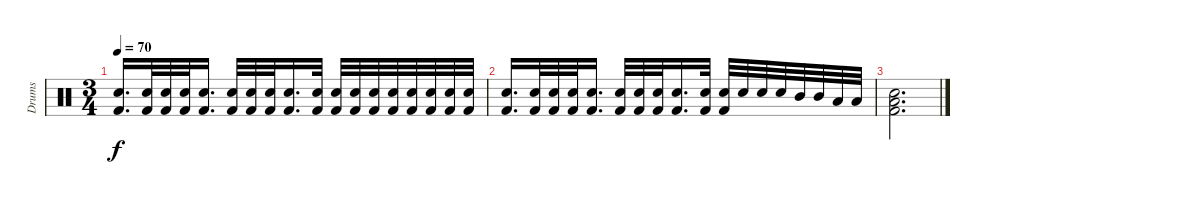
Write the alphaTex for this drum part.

\track ("Drums" "Drums") {instrument percussion}
\staff {score}
\articulation defaults
\ts (3 4)
\tempo 70
\clef neutral
\ks c
("Electric Snare (hit)" "Kick (hit) 2").16{d dy f} ("Electric Snare (hit)" "Kick (hit) 2").32 ("Electric Snare (hit)" "Kick (hit) 2").32 ("Electric Snare (hit)" "Kick (hit) 2").32 ("Electric Snare (hit)" "Kick (hit) 2").16{d} ("Electric Snare (hit)" "Kick (hit) 2").32 ("Electric Snare (hit)" "Kick (hit) 2").32 ("Electric Snare (hit)" "Kick (hit) 2").32 ("Electric Snare (hit)" "Kick (hit) 2").16{d} ("Electric Snare (hit)" "Kick (hit) 2").32 ("Electric Snare (hit)" "Kick (hit) 2").32 ("Electric Snare (hit)" "Kick (hit) 2").32 ("Electric Snare (hit)" "Kick (hit) 2").32 ("Electric Snare (hit)" "Kick (hit) 2").32 ("Electric Snare (hit)" "Kick (hit) 2").32 ("Electric Snare (hit)" "Kick (hit) 2").32 ("Electric Snare (hit)" "Kick (hit) 2").32 ("Electric Snare (hit)" "Kick (hit) 2").32 |
("Electric Snare (hit)" "Kick (hit) 2").16{d} ("Electric Snare (hit)" "Kick (hit) 2").32 ("Electric Snare (hit)" "Kick (hit) 2").32 ("Electric Snare (hit)" "Kick (hit) 2").32 ("Electric Snare (hit)" "Kick (hit) 2").16{d} ("Electric Snare (hit)" "Kick (hit) 2").32 ("Electric Snare (hit)" "Kick (hit) 2").32 ("Electric Snare (hit)" "Kick (hit) 2").32 ("Electric Snare (hit)" "Kick (hit) 2").16{d} ("Electric Snare (hit)" "Kick (hit) 2").32 ("Electric Snare (hit)" "Kick (hit) 2").32 "Electric Snare (hit)".32 "Electric Snare (hit)".32 "Electric Snare (hit)".32 "Mid Tom (hit)".32 "Mid Tom (hit)".32 "Low Tom (hit)".32 "Low Tom (hit)".32 |
("Low Floor Tom (hit)" "Electric Snare (hit)" "Kick (hit) 2").2{d}
